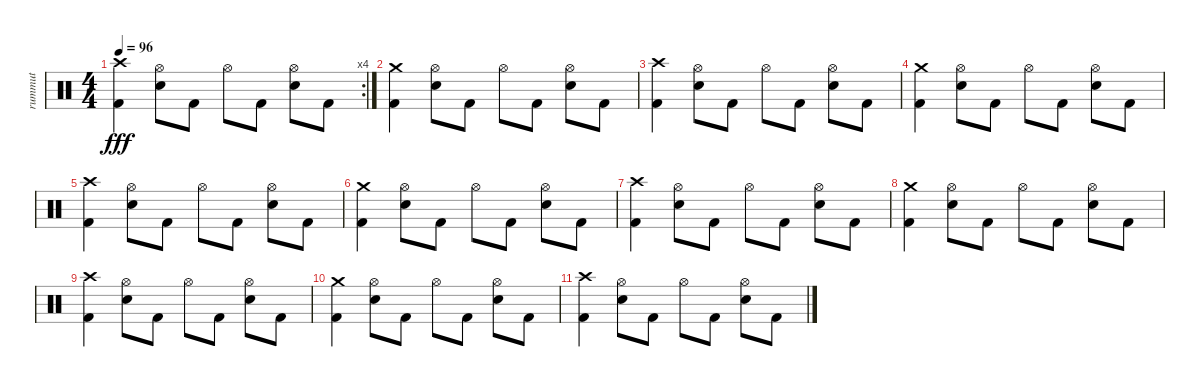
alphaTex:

\track ("rummut" "rummut") {instrument percussion}
\staff {score}
\articulation defaults
\rc 4
\ts (4 4)
\tempo 96
\clef neutral
\ks c
("Kick (hit) 2" "Crash high (hit)").4{dy fff} ("Hi-Hat (open)" "Snare (hit) 2").8 "Kick (hit) 2".8 "Hi-Hat (open)".8 "Kick (hit) 2".8 ("Hi-Hat (open)" "Snare (hit) 2").8 "Kick (hit) 2".8 |
("Kick (hit) 2" "Crash medium (hit)").4{volume 11} ("Hi-Hat (open)" "Snare (hit) 2").8 "Kick (hit) 2".8 "Hi-Hat (open)".8 "Kick (hit) 2".8 ("Hi-Hat (open)" "Snare (hit) 2").8 "Kick (hit) 2".8 |
("Kick (hit) 2" "Crash high (hit)").4 ("Hi-Hat (open)" "Snare (hit) 2").8 "Kick (hit) 2".8 "Hi-Hat (open)".8 "Kick (hit) 2".8 ("Hi-Hat (open)" "Snare (hit) 2").8 "Kick (hit) 2".8 |
("Kick (hit) 2" "Crash medium (hit)").4{volume 9} ("Hi-Hat (open)" "Snare (hit) 2").8 "Kick (hit) 2".8 "Hi-Hat (open)".8 "Kick (hit) 2".8 ("Hi-Hat (open)" "Snare (hit) 2").8 "Kick (hit) 2".8 |
("Kick (hit) 2" "Crash high (hit)").4 ("Hi-Hat (open)" "Snare (hit) 2").8 "Kick (hit) 2".8 "Hi-Hat (open)".8 "Kick (hit) 2".8 ("Hi-Hat (open)" "Snare (hit) 2").8 "Kick (hit) 2".8 |
("Kick (hit) 2" "Crash medium (hit)").4{volume 7} ("Hi-Hat (open)" "Snare (hit) 2").8 "Kick (hit) 2".8 "Hi-Hat (open)".8 "Kick (hit) 2".8 ("Hi-Hat (open)" "Snare (hit) 2").8 "Kick (hit) 2".8 |
("Kick (hit) 2" "Crash high (hit)").4 ("Hi-Hat (open)" "Snare (hit) 2").8 "Kick (hit) 2".8 "Hi-Hat (open)".8 "Kick (hit) 2".8 ("Hi-Hat (open)" "Snare (hit) 2").8 "Kick (hit) 2".8 |
("Kick (hit) 2" "Crash medium (hit)").4{volume 5} ("Hi-Hat (open)" "Snare (hit) 2").8 "Kick (hit) 2".8 "Hi-Hat (open)".8 "Kick (hit) 2".8 ("Hi-Hat (open)" "Snare (hit) 2").8 "Kick (hit) 2".8 |
("Kick (hit) 2" "Crash high (hit)").4 ("Hi-Hat (open)" "Snare (hit) 2").8 "Kick (hit) 2".8 "Hi-Hat (open)".8 "Kick (hit) 2".8 ("Hi-Hat (open)" "Snare (hit) 2").8 "Kick (hit) 2".8 |
("Kick (hit) 2" "Crash medium (hit)").4{volume 0} ("Hi-Hat (open)" "Snare (hit) 2").8 "Kick (hit) 2".8 "Hi-Hat (open)".8 "Kick (hit) 2".8 ("Hi-Hat (open)" "Snare (hit) 2").8 "Kick (hit) 2".8 |
("Kick (hit) 2" "Crash high (hit)").4 ("Hi-Hat (open)" "Snare (hit) 2").8 "Kick (hit) 2".8 "Hi-Hat (open)".8 "Kick (hit) 2".8 ("Hi-Hat (open)" "Snare (hit) 2").8 "Kick (hit) 2".8
